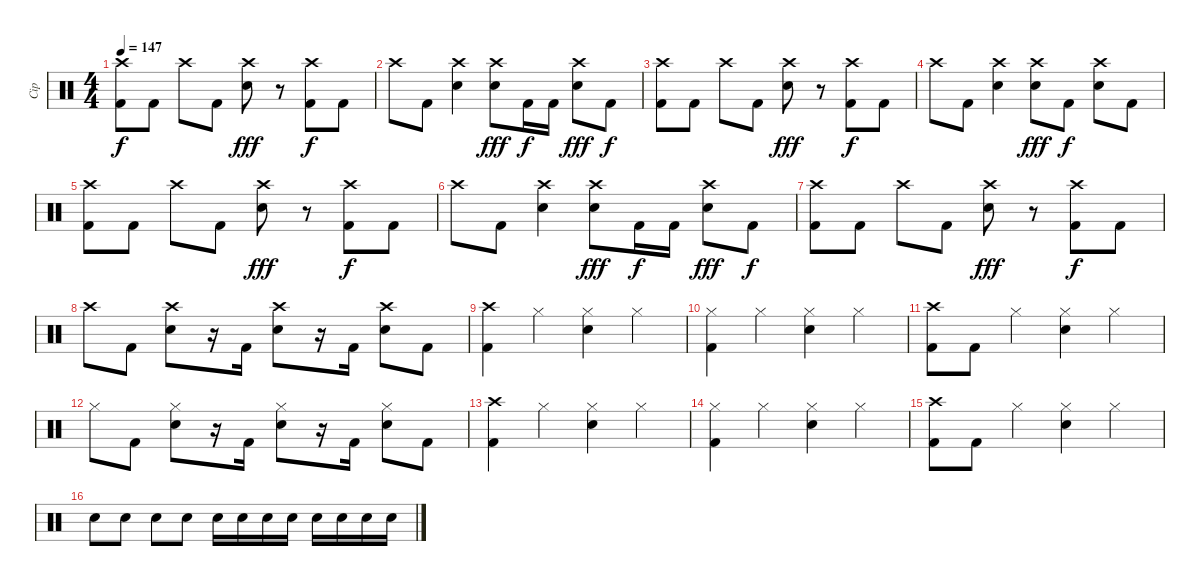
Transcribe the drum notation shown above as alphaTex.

\track ("Cip" "Cip") {instrument percussion}
\staff {score}
\articulation defaults
\ts (4 4)
\tempo 147
\clef neutral
\ks c
("Crash high (hit)" "Kick (hit) 2").8{dy f} "Kick (hit) 2".8 "Crash high (hit)".8 "Kick (hit) 2".8 ("Crash high (hit)" "Electric Snare (hit)").8{dy fff} r.8 ("Crash high (hit)" "Kick (hit) 2").8{dy f} "Kick (hit) 2".8 |
"Crash high (hit)".8 "Kick (hit) 2".8 ("Crash high (hit)" "Electric Snare (hit)").4 ("Crash high (hit)" "Electric Snare (hit)").8{dy fff} "Kick (hit) 2".16{dy f} "Kick (hit) 2".16 ("Crash high (hit)" "Electric Snare (hit)").8{dy fff} "Kick (hit) 2".8{dy f} |
("Crash high (hit)" "Kick (hit) 2").8 "Kick (hit) 2".8 "Crash high (hit)".8 "Kick (hit) 2".8 ("Crash high (hit)" "Electric Snare (hit)").8{dy fff} r.8 ("Crash high (hit)" "Kick (hit) 2").8{dy f} "Kick (hit) 2".8 |
"Crash high (hit)".8 "Kick (hit) 2".8 ("Crash high (hit)" "Electric Snare (hit)").4 ("Crash high (hit)" "Electric Snare (hit)").8{dy fff} "Kick (hit) 2".8{dy f} ("Crash high (hit)" "Electric Snare (hit)").8 "Kick (hit) 2".8 |
("Crash high (hit)" "Kick (hit) 2").8 "Kick (hit) 2".8 "Crash high (hit)".8 "Kick (hit) 2".8 ("Crash high (hit)" "Electric Snare (hit)").8{dy fff} r.8 ("Crash high (hit)" "Kick (hit) 2").8{dy f} "Kick (hit) 2".8 |
"Crash high (hit)".8 "Kick (hit) 2".8 ("Crash high (hit)" "Electric Snare (hit)").4 ("Crash high (hit)" "Electric Snare (hit)").8{dy fff} "Kick (hit) 2".16{dy f} "Kick (hit) 2".16 ("Crash high (hit)" "Electric Snare (hit)").8{dy fff} "Kick (hit) 2".8{dy f} |
("Crash high (hit)" "Kick (hit) 2").8 "Kick (hit) 2".8 "Crash high (hit)".8 "Kick (hit) 2".8 ("Crash high (hit)" "Electric Snare (hit)").8{dy fff} r.8 ("Crash high (hit)" "Kick (hit) 2").8{dy f} "Kick (hit) 2".8 |
"Crash high (hit)".8 "Kick (hit) 2".8 ("Crash high (hit)" "Electric Snare (hit)").8 r.16 "Kick (hit) 2".16 ("Crash high (hit)" "Electric Snare (hit)").8 r.16 "Kick (hit) 2".16 ("Crash high (hit)" "Electric Snare (hit)").8 "Kick (hit) 2".8 |
("Crash high (hit)" "Kick (hit) 2").4 "Hi-Hat (closed)".4 ("Hi-Hat (closed)" "Electric Snare (hit)").4 "Hi-Hat (closed)".4 |
("Hi-Hat (closed)" "Kick (hit) 2").4 "Hi-Hat (closed)".4 ("Hi-Hat (closed)" "Electric Snare (hit)").4 "Hi-Hat (closed)".4 |
("Crash high (hit)" "Kick (hit) 2").8 "Kick (hit) 2".8 "Hi-Hat (closed)".4 ("Hi-Hat (closed)" "Electric Snare (hit)").4 "Hi-Hat (closed)".4 |
"Hi-Hat (closed)".8 "Kick (hit) 2".8 ("Hi-Hat (closed)" "Electric Snare (hit)").8 r.16 "Kick (hit) 2".16 ("Hi-Hat (closed)" "Electric Snare (hit)").8 r.16 "Kick (hit) 2".16 ("Hi-Hat (closed)" "Electric Snare (hit)").8 "Kick (hit) 2".8 |
("Crash high (hit)" "Kick (hit) 2").4 "Hi-Hat (closed)".4 ("Hi-Hat (closed)" "Electric Snare (hit)").4 "Hi-Hat (closed)".4 |
("Hi-Hat (closed)" "Kick (hit) 2").4 "Hi-Hat (closed)".4 ("Hi-Hat (closed)" "Electric Snare (hit)").4 "Hi-Hat (closed)".4 |
("Crash high (hit)" "Kick (hit) 2").8 "Kick (hit) 2".8 "Hi-Hat (closed)".4 ("Hi-Hat (closed)" "Electric Snare (hit)").4 "Hi-Hat (closed)".4 |
"Electric Snare (hit)".8 "Electric Snare (hit)".8 "Electric Snare (hit)".8 "Electric Snare (hit)".8 "Electric Snare (hit)".16 "Electric Snare (hit)".16 "Electric Snare (hit)".16 "Electric Snare (hit)".16 "Electric Snare (hit)".16 "Electric Snare (hit)".16 "Electric Snare (hit)".16 "Electric Snare (hit)".16
